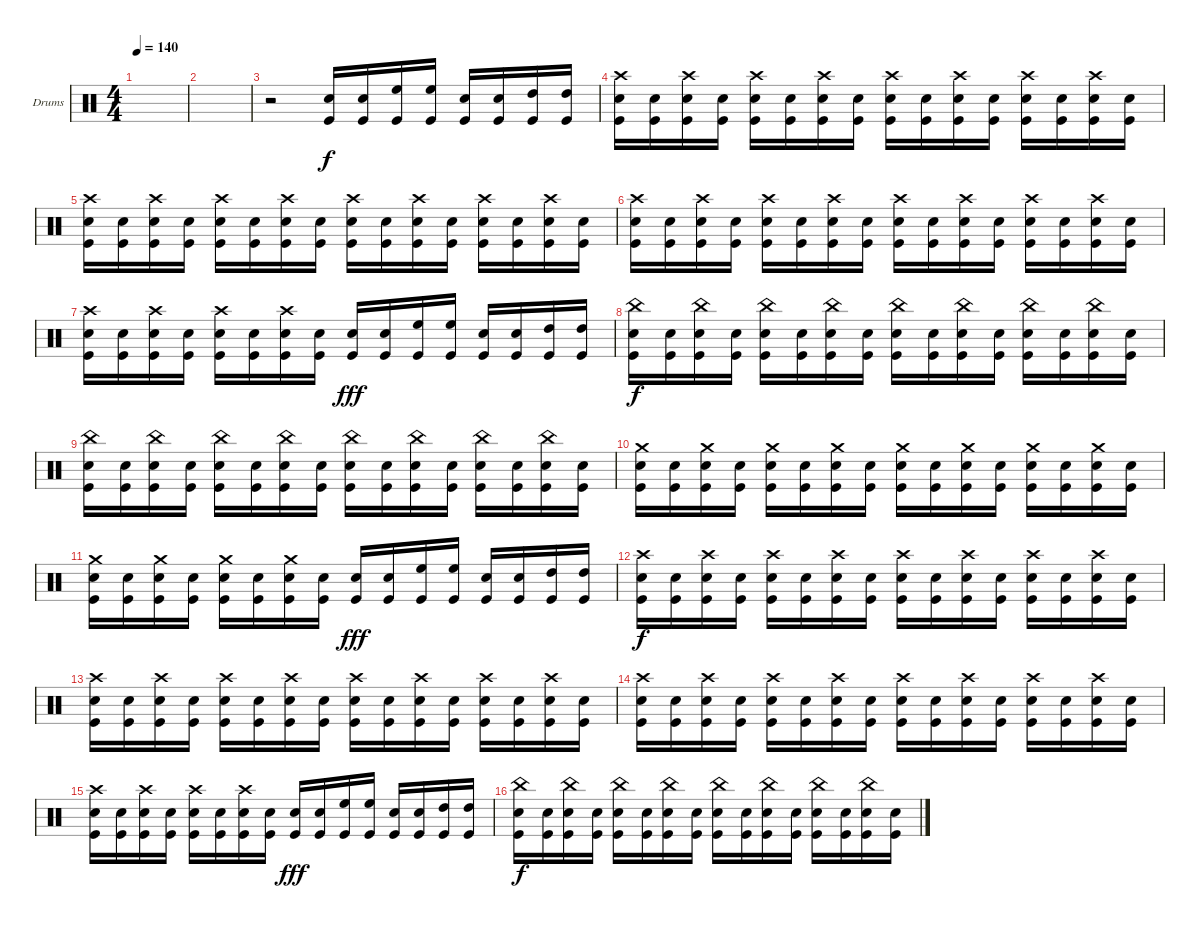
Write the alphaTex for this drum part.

\defaultSystemsLayout 4
\bracketExtendMode groupsimilarinstruments
\firstSystemTrackNameOrientation horizontal
\otherSystemsTrackNameOrientation horizontal
\track ("Drumkit" "Drums") {instrument percussion}
\staff {score}
\articulation defaults
\ts (4 4)
\tempo 140
\clef neutral
\scale
0.472222
\ks c
|
\scale
0.263889 |
\scale
0.263889 r.2 ("Snare (hit) 2" "Kick (hit)").16 ("Snare (hit) 2" "Kick (hit)").16 ("High Floor Tom (hit)" "Kick (hit)").16 ("High Floor Tom (hit)" "Kick (hit)").16 ("Snare (hit) 2" "Kick (hit)").16 ("Snare (hit) 2" "Kick (hit)").16 ("High Tom (hit)" "Kick (hit)").16 ("High Tom (hit)" "Kick (hit)").16 |
\scale
0.333333 ("Kick (hit)" "Snare (hit) 2" "Crash high (hit)").16{dy f} ("Kick (hit)" "Snare (hit) 2").16 ("Kick (hit)" "Snare (hit) 2" "Crash high (hit)").16 ("Kick (hit)" "Snare (hit) 2").16 ("Kick (hit)" "Snare (hit) 2" "Crash high (hit)").16 ("Kick (hit)" "Snare (hit) 2").16 ("Kick (hit)" "Snare (hit) 2" "Crash high (hit)").16 ("Kick (hit)" "Snare (hit) 2").16 ("Kick (hit)" "Snare (hit) 2" "Crash high (hit)").16 ("Kick (hit)" "Snare (hit) 2").16 ("Kick (hit)" "Snare (hit) 2" "Crash high (hit)").16 ("Kick (hit)" "Snare (hit) 2").16 ("Kick (hit)" "Snare (hit) 2" "Crash high (hit)").16 ("Kick (hit)" "Snare (hit) 2").16 ("Kick (hit)" "Snare (hit) 2" "Crash high (hit)").16 ("Kick (hit)" "Snare (hit) 2").16 |
\scale
0.333333 ("Kick (hit)" "Snare (hit) 2" "Crash high (hit)").16 ("Kick (hit)" "Snare (hit) 2").16 ("Kick (hit)" "Snare (hit) 2" "Crash high (hit)").16 ("Kick (hit)" "Snare (hit) 2").16 ("Kick (hit)" "Snare (hit) 2" "Crash high (hit)").16 ("Kick (hit)" "Snare (hit) 2").16 ("Kick (hit)" "Snare (hit) 2" "Crash high (hit)").16 ("Kick (hit)" "Snare (hit) 2").16 ("Kick (hit)" "Snare (hit) 2" "Crash high (hit)").16 ("Kick (hit)" "Snare (hit) 2").16 ("Kick (hit)" "Snare (hit) 2" "Crash high (hit)").16 ("Kick (hit)" "Snare (hit) 2").16 ("Kick (hit)" "Snare (hit) 2" "Crash high (hit)").16 ("Kick (hit)" "Snare (hit) 2").16 ("Kick (hit)" "Snare (hit) 2" "Crash high (hit)").16 ("Kick (hit)" "Snare (hit) 2").16 |
\scale
0.333333 ("Kick (hit)" "Snare (hit) 2" "Crash high (hit)").16 ("Kick (hit)" "Snare (hit) 2").16 ("Kick (hit)" "Snare (hit) 2" "Crash high (hit)").16 ("Kick (hit)" "Snare (hit) 2").16 ("Kick (hit)" "Snare (hit) 2" "Crash high (hit)").16 ("Kick (hit)" "Snare (hit) 2").16 ("Kick (hit)" "Snare (hit) 2" "Crash high (hit)").16 ("Kick (hit)" "Snare (hit) 2").16 ("Kick (hit)" "Snare (hit) 2" "Crash high (hit)").16 ("Kick (hit)" "Snare (hit) 2").16 ("Kick (hit)" "Snare (hit) 2" "Crash high (hit)").16 ("Kick (hit)" "Snare (hit) 2").16 ("Kick (hit)" "Snare (hit) 2" "Crash high (hit)").16 ("Kick (hit)" "Snare (hit) 2").16 ("Kick (hit)" "Snare (hit) 2" "Crash high (hit)").16 ("Kick (hit)" "Snare (hit) 2").16 |
\scale
0.333333 ("Kick (hit)" "Snare (hit) 2" "Crash high (hit)").16 ("Kick (hit)" "Snare (hit) 2").16 ("Kick (hit)" "Snare (hit) 2" "Crash high (hit)").16 ("Kick (hit)" "Snare (hit) 2").16 ("Kick (hit)" "Snare (hit) 2" "Crash high (hit)").16 ("Kick (hit)" "Snare (hit) 2").16 ("Kick (hit)" "Snare (hit) 2" "Crash high (hit)").16 ("Kick (hit)" "Snare (hit) 2").16 ("Snare (hit) 2" "Kick (hit)").16{dy fff} ("Snare (hit) 2" "Kick (hit)").16 ("High Floor Tom (hit)" "Kick (hit)").16 ("High Floor Tom (hit)" "Kick (hit)").16 ("Snare (hit) 2" "Kick (hit)").16 ("Snare (hit) 2" "Kick (hit)").16 ("High Tom (hit)" "Kick (hit)").16 ("High Tom (hit)" "Kick (hit)").16 |
\scale
0.333333 ("Kick (hit)" "Snare (hit) 2" "China (hit)").16{dy f} ("Kick (hit)" "Snare (hit) 2").16 ("Kick (hit)" "Snare (hit) 2" "China (hit)").16 ("Kick (hit)" "Snare (hit) 2").16 ("Kick (hit)" "Snare (hit) 2" "China (hit)").16 ("Kick (hit)" "Snare (hit) 2").16 ("Kick (hit)" "Snare (hit) 2" "China (hit)").16 ("Kick (hit)" "Snare (hit) 2").16 ("Kick (hit)" "Snare (hit) 2" "China (hit)").16 ("Kick (hit)" "Snare (hit) 2").16 ("Kick (hit)" "Snare (hit) 2" "China (hit)").16 ("Kick (hit)" "Snare (hit) 2").16 ("Kick (hit)" "Snare (hit) 2" "China (hit)").16 ("Kick (hit)" "Snare (hit) 2").16 ("Kick (hit)" "Snare (hit) 2" "China (hit)").16 ("Kick (hit)" "Snare (hit) 2").16 |
\scale
0.333333 ("Kick (hit)" "Snare (hit) 2" "China (hit)").16 ("Kick (hit)" "Snare (hit) 2").16 ("Kick (hit)" "Snare (hit) 2" "China (hit)").16 ("Kick (hit)" "Snare (hit) 2").16 ("Kick (hit)" "Snare (hit) 2" "China (hit)").16 ("Kick (hit)" "Snare (hit) 2").16 ("Kick (hit)" "Snare (hit) 2" "China (hit)").16 ("Kick (hit)" "Snare (hit) 2").16 ("Kick (hit)" "Snare (hit) 2" "China (hit)").16 ("Kick (hit)" "Snare (hit) 2").16 ("Kick (hit)" "Snare (hit) 2" "China (hit)").16 ("Kick (hit)" "Snare (hit) 2").16 ("Kick (hit)" "Snare (hit) 2" "China (hit)").16 ("Kick (hit)" "Snare (hit) 2").16 ("Kick (hit)" "Snare (hit) 2" "China (hit)").16 ("Kick (hit)" "Snare (hit) 2").16 |
\scale
0.333333 ("Kick (hit)" "Snare (hit) 2" "Crash medium (hit)").16 ("Kick (hit)" "Snare (hit) 2").16 ("Kick (hit)" "Snare (hit) 2" "Crash medium (hit)").16 ("Kick (hit)" "Snare (hit) 2").16 ("Kick (hit)" "Snare (hit) 2" "Crash medium (hit)").16 ("Kick (hit)" "Snare (hit) 2").16 ("Kick (hit)" "Snare (hit) 2" "Crash medium (hit)").16 ("Kick (hit)" "Snare (hit) 2").16 ("Kick (hit)" "Snare (hit) 2" "Crash medium (hit)").16 ("Kick (hit)" "Snare (hit) 2").16 ("Kick (hit)" "Snare (hit) 2" "Crash medium (hit)").16 ("Kick (hit)" "Snare (hit) 2").16 ("Kick (hit)" "Snare (hit) 2" "Crash medium (hit)").16 ("Kick (hit)" "Snare (hit) 2").16 ("Kick (hit)" "Snare (hit) 2" "Crash medium (hit)").16 ("Kick (hit)" "Snare (hit) 2").16 |
\scale
0.333333 ("Kick (hit)" "Snare (hit) 2" "Crash medium (hit)").16 ("Kick (hit)" "Snare (hit) 2").16 ("Kick (hit)" "Snare (hit) 2" "Crash medium (hit)").16 ("Kick (hit)" "Snare (hit) 2").16 ("Kick (hit)" "Snare (hit) 2" "Crash medium (hit)").16 ("Kick (hit)" "Snare (hit) 2").16 ("Kick (hit)" "Snare (hit) 2" "Crash medium (hit)").16 ("Kick (hit)" "Snare (hit) 2").16 ("Snare (hit) 2" "Kick (hit)").16{dy fff} ("Snare (hit) 2" "Kick (hit)").16 ("High Floor Tom (hit)" "Kick (hit)").16 ("High Floor Tom (hit)" "Kick (hit)").16 ("Snare (hit) 2" "Kick (hit)").16 ("Snare (hit) 2" "Kick (hit)").16 ("High Tom (hit)" "Kick (hit)").16 ("High Tom (hit)" "Kick (hit)").16 |
\scale
0.333333 ("Kick (hit)" "Snare (hit) 2" "Crash high (hit)").16{dy f} ("Kick (hit)" "Snare (hit) 2").16 ("Kick (hit)" "Snare (hit) 2" "Crash high (hit)").16 ("Kick (hit)" "Snare (hit) 2").16 ("Kick (hit)" "Snare (hit) 2" "Crash high (hit)").16 ("Kick (hit)" "Snare (hit) 2").16 ("Kick (hit)" "Snare (hit) 2" "Crash high (hit)").16 ("Kick (hit)" "Snare (hit) 2").16 ("Kick (hit)" "Snare (hit) 2" "Crash high (hit)").16 ("Kick (hit)" "Snare (hit) 2").16 ("Kick (hit)" "Snare (hit) 2" "Crash high (hit)").16 ("Kick (hit)" "Snare (hit) 2").16 ("Kick (hit)" "Snare (hit) 2" "Crash high (hit)").16 ("Kick (hit)" "Snare (hit) 2").16 ("Kick (hit)" "Snare (hit) 2" "Crash high (hit)").16 ("Kick (hit)" "Snare (hit) 2").16 |
\scale
0.333333 ("Kick (hit)" "Snare (hit) 2" "Crash high (hit)").16 ("Kick (hit)" "Snare (hit) 2").16 ("Kick (hit)" "Snare (hit) 2" "Crash high (hit)").16 ("Kick (hit)" "Snare (hit) 2").16 ("Kick (hit)" "Snare (hit) 2" "Crash high (hit)").16 ("Kick (hit)" "Snare (hit) 2").16 ("Kick (hit)" "Snare (hit) 2" "Crash high (hit)").16 ("Kick (hit)" "Snare (hit) 2").16 ("Kick (hit)" "Snare (hit) 2" "Crash high (hit)").16 ("Kick (hit)" "Snare (hit) 2").16 ("Kick (hit)" "Snare (hit) 2" "Crash high (hit)").16 ("Kick (hit)" "Snare (hit) 2").16 ("Kick (hit)" "Snare (hit) 2" "Crash high (hit)").16 ("Kick (hit)" "Snare (hit) 2").16 ("Kick (hit)" "Snare (hit) 2" "Crash high (hit)").16 ("Kick (hit)" "Snare (hit) 2").16 |
\scale
0.333333 ("Kick (hit)" "Snare (hit) 2" "Crash high (hit)").16 ("Kick (hit)" "Snare (hit) 2").16 ("Kick (hit)" "Snare (hit) 2" "Crash high (hit)").16 ("Kick (hit)" "Snare (hit) 2").16 ("Kick (hit)" "Snare (hit) 2" "Crash high (hit)").16 ("Kick (hit)" "Snare (hit) 2").16 ("Kick (hit)" "Snare (hit) 2" "Crash high (hit)").16 ("Kick (hit)" "Snare (hit) 2").16 ("Kick (hit)" "Snare (hit) 2" "Crash high (hit)").16 ("Kick (hit)" "Snare (hit) 2").16 ("Kick (hit)" "Snare (hit) 2" "Crash high (hit)").16 ("Kick (hit)" "Snare (hit) 2").16 ("Kick (hit)" "Snare (hit) 2" "Crash high (hit)").16 ("Kick (hit)" "Snare (hit) 2").16 ("Kick (hit)" "Snare (hit) 2" "Crash high (hit)").16 ("Kick (hit)" "Snare (hit) 2").16 |
\scale
0.333333 ("Kick (hit)" "Snare (hit) 2" "Crash high (hit)").16 ("Kick (hit)" "Snare (hit) 2").16 ("Kick (hit)" "Snare (hit) 2" "Crash high (hit)").16 ("Kick (hit)" "Snare (hit) 2").16 ("Kick (hit)" "Snare (hit) 2" "Crash high (hit)").16 ("Kick (hit)" "Snare (hit) 2").16 ("Kick (hit)" "Snare (hit) 2" "Crash high (hit)").16 ("Kick (hit)" "Snare (hit) 2").16 ("Snare (hit) 2" "Kick (hit)").16{dy fff} ("Snare (hit) 2" "Kick (hit)").16 ("High Floor Tom (hit)" "Kick (hit)").16 ("High Floor Tom (hit)" "Kick (hit)").16 ("Snare (hit) 2" "Kick (hit)").16 ("Snare (hit) 2" "Kick (hit)").16 ("High Tom (hit)" "Kick (hit)").16 ("High Tom (hit)" "Kick (hit)").16 |
\scale
0.333333 ("Kick (hit)" "Snare (hit) 2" "China (hit)").16{dy f} ("Kick (hit)" "Snare (hit) 2").16 ("Kick (hit)" "Snare (hit) 2" "China (hit)").16 ("Kick (hit)" "Snare (hit) 2").16 ("Kick (hit)" "Snare (hit) 2" "China (hit)").16 ("Kick (hit)" "Snare (hit) 2").16 ("Kick (hit)" "Snare (hit) 2" "China (hit)").16 ("Kick (hit)" "Snare (hit) 2").16 ("Kick (hit)" "Snare (hit) 2" "China (hit)").16 ("Kick (hit)" "Snare (hit) 2").16 ("Kick (hit)" "Snare (hit) 2" "China (hit)").16 ("Kick (hit)" "Snare (hit) 2").16 ("Kick (hit)" "Snare (hit) 2" "China (hit)").16 ("Kick (hit)" "Snare (hit) 2").16 ("Kick (hit)" "Snare (hit) 2" "China (hit)").16 ("Kick (hit)" "Snare (hit) 2").16
